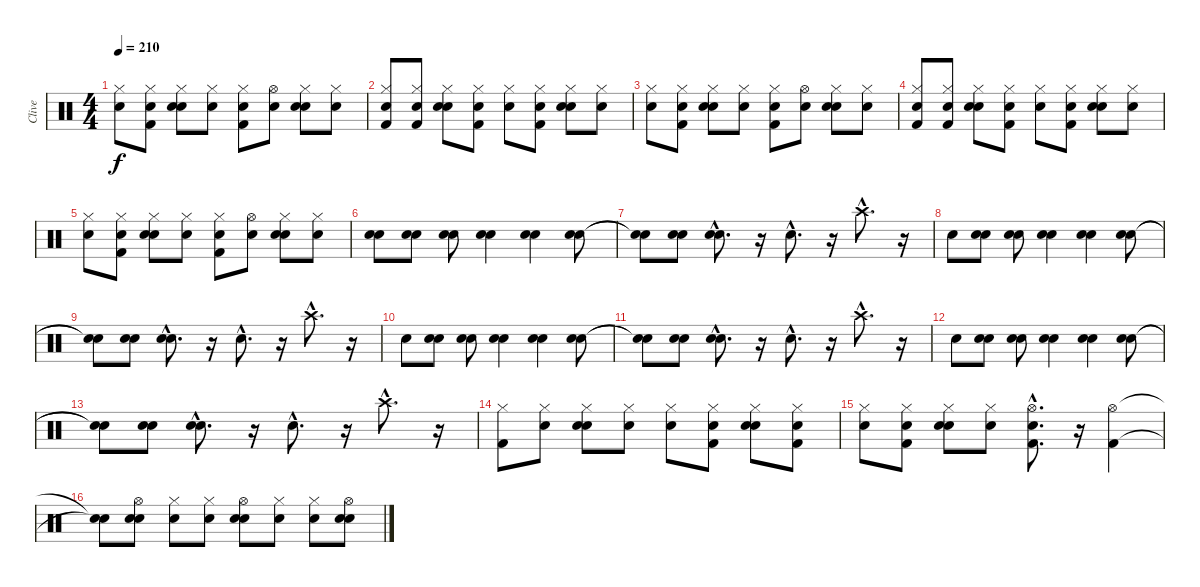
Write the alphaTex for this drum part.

\track ("Clive" "Clive") {instrument percussion}
\staff {score}
\articulation defaults
\ts (4 4)
\tempo 210
\clef neutral
\ks c
("Snare (hit)" "Hi-Hat (closed)").8{dy f} ("Snare (hit)" "Kick (hit) 2" "Hi-Hat (closed)").8 ("Snare (hit)" "Snare (hit) 2" "Hi-Hat (closed)").8 ("Snare (hit)" "Hi-Hat (closed)").8 ("Snare (hit)" "Kick (hit) 2" "Hi-Hat (closed)").8 ("Snare (hit)" "Hi-Hat (open)").8 ("Snare (hit)" "Snare (hit) 2" "Hi-Hat (closed)").8 ("Snare (hit)" "Hi-Hat (closed)").8 |
("Snare (hit)" "Kick (hit) 2" "Hi-Hat (closed)").8 ("Snare (hit)" "Kick (hit) 2" "Hi-Hat (closed)").8 ("Snare (hit)" "Snare (hit) 2" "Hi-Hat (closed)").8 ("Snare (hit)" "Kick (hit) 2" "Hi-Hat (closed)").8 ("Snare (hit)" "Hi-Hat (closed)").8 ("Snare (hit)" "Kick (hit) 2" "Hi-Hat (closed)").8 ("Snare (hit)" "Snare (hit) 2" "Hi-Hat (closed)").8 ("Snare (hit)" "Hi-Hat (closed)").8 |
("Snare (hit)" "Hi-Hat (closed)").8 ("Snare (hit)" "Kick (hit) 2" "Hi-Hat (closed)").8 ("Snare (hit)" "Snare (hit) 2" "Hi-Hat (closed)").8 ("Snare (hit)" "Hi-Hat (closed)").8 ("Snare (hit)" "Kick (hit) 2" "Hi-Hat (closed)").8 ("Snare (hit)" "Hi-Hat (open)").8 ("Snare (hit)" "Snare (hit) 2" "Hi-Hat (closed)").8 ("Snare (hit)" "Hi-Hat (closed)").8 |
("Snare (hit)" "Kick (hit) 2" "Hi-Hat (closed)").8 ("Snare (hit)" "Kick (hit) 2" "Hi-Hat (closed)").8 ("Snare (hit)" "Snare (hit) 2" "Hi-Hat (closed)").8 ("Snare (hit)" "Kick (hit) 2" "Hi-Hat (closed)").8 ("Snare (hit)" "Hi-Hat (closed)").8 ("Snare (hit)" "Kick (hit) 2" "Hi-Hat (closed)").8 ("Snare (hit)" "Snare (hit) 2" "Hi-Hat (closed)").8 ("Snare (hit)" "Hi-Hat (closed)").8 |
("Snare (hit)" "Hi-Hat (closed)").8 ("Snare (hit)" "Kick (hit) 2" "Hi-Hat (closed)").8 ("Snare (hit)" "Snare (hit) 2" "Hi-Hat (closed)").8 ("Snare (hit)" "Hi-Hat (closed)").8 ("Snare (hit)" "Kick (hit) 2" "Hi-Hat (closed)").8 ("Snare (hit)" "Hi-Hat (open)").8 ("Snare (hit)" "Snare (hit) 2" "Hi-Hat (closed)").8 ("Snare (hit)" "Hi-Hat (closed)").8 |
("Snare (hit)" "Snare (hit) 2").8 ("Snare (hit)" "Snare (hit) 2").8 ("Snare (hit)" "Snare (hit) 2").8 ("Snare (hit)" "Snare (hit) 2").4 ("Snare (hit)" "Snare (hit) 2").4 ("Snare (hit)" "Snare (hit) 2").8 |
("Snare (hit)"{t} "Snare (hit)"{t}).8 ("Snare (hit)" "Snare (hit) 2").8 ("Snare (hit)"{hac} "Snare (hit) 2"{hac}).8{d} r.16 "Snare (hit) 2"{hac}.8{d} r.16 "Crash high (hit)"{hac}.8{d} r.16 |
"Snare (hit) 2".8 ("Snare (hit)" "Snare (hit) 2").8 ("Snare (hit)" "Snare (hit) 2").8 ("Snare (hit)" "Snare (hit) 2").4 ("Snare (hit)" "Snare (hit) 2").4 ("Snare (hit)" "Snare (hit) 2").8 |
("Snare (hit)"{t} "Snare (hit)"{t}).8 ("Snare (hit)" "Snare (hit) 2").8 ("Snare (hit)"{hac} "Snare (hit) 2"{hac}).8{d} r.16 "Snare (hit) 2"{hac}.8{d} r.16 "Crash high (hit)"{hac}.8{d} r.16 |
"Snare (hit) 2".8 ("Snare (hit)" "Snare (hit) 2").8 ("Snare (hit)" "Snare (hit) 2").8 ("Snare (hit)" "Snare (hit) 2").4 ("Snare (hit)" "Snare (hit) 2").4 ("Snare (hit)" "Snare (hit) 2").8 |
("Snare (hit)"{t} "Snare (hit)"{t}).8 ("Snare (hit)" "Snare (hit) 2").8 ("Snare (hit)"{hac} "Snare (hit) 2"{hac}).8{d} r.16 "Snare (hit) 2"{hac}.8{d} r.16 "Crash high (hit)"{hac}.8{d} r.16 |
"Snare (hit) 2".8 ("Snare (hit)" "Snare (hit) 2").8 ("Snare (hit)" "Snare (hit) 2").8 ("Snare (hit)" "Snare (hit) 2").4 ("Snare (hit)" "Snare (hit) 2").4 ("Snare (hit)" "Snare (hit) 2").8 |
("Snare (hit)"{t} "Snare (hit)"{t}).8 ("Snare (hit)" "Snare (hit) 2").8 ("Snare (hit)"{hac} "Snare (hit) 2"{hac}).8{d} r.16 "Snare (hit) 2"{hac}.8{d} r.16 "Crash high (hit)"{hac}.8{d} r.16 |
("Kick (hit) 2" "Hi-Hat (closed)").8 ("Snare (hit)" "Hi-Hat (closed)").8 ("Snare (hit)" "Snare (hit) 2" "Hi-Hat (closed)").8 ("Snare (hit)" "Hi-Hat (closed)").8 ("Snare (hit)" "Hi-Hat (closed)").8 ("Snare (hit)" "Kick (hit) 2" "Hi-Hat (closed)").8 ("Snare (hit)" "Snare (hit) 2" "Hi-Hat (closed)").8 ("Snare (hit)" "Kick (hit) 2" "Hi-Hat (closed)").8 |
("Snare (hit)" "Hi-Hat (closed)").8 ("Snare (hit)" "Kick (hit) 2" "Hi-Hat (closed)").8 ("Snare (hit)" "Snare (hit) 2" "Hi-Hat (closed)").8 ("Snare (hit)" "Hi-Hat (closed)").8 ("Snare (hit)"{hac} "Kick (hit) 2"{hac} "Hi-Hat (open)"{hac}).8{d} r.16 ("Kick (hit) 2" "Hi-Hat (open)").4 |
("Snare (hit)"{t} "Snare (hit)"{t}).8 ("Snare (hit)" "Snare (hit) 2" "Hi-Hat (open)").8 ("Snare (hit)" "Hi-Hat (closed)").8 ("Snare (hit)" "Hi-Hat (closed)").8 ("Snare (hit)" "Snare (hit) 2" "Hi-Hat (open)").8 ("Snare (hit)" "Hi-Hat (closed)").8 ("Snare (hit)" "Hi-Hat (closed)").8 ("Snare (hit)" "Snare (hit) 2" "Hi-Hat (open)").8
